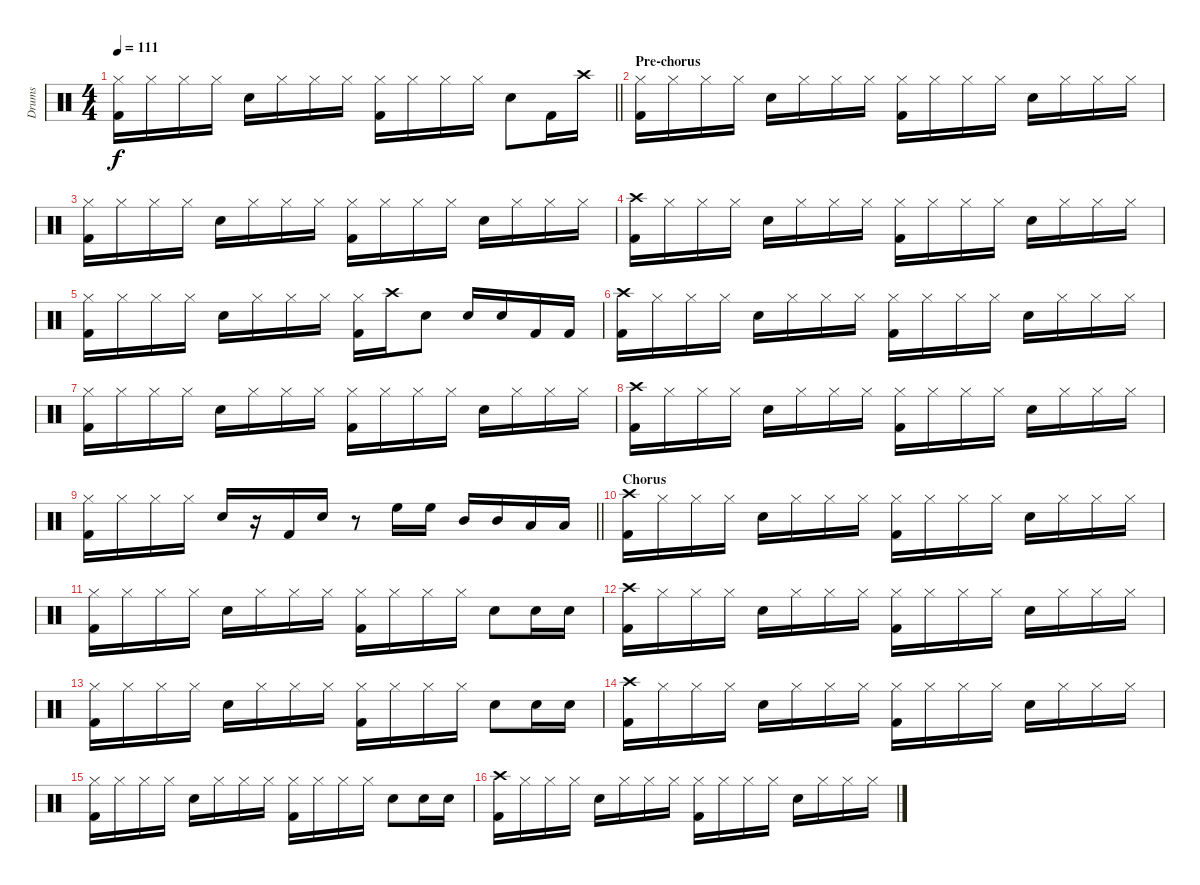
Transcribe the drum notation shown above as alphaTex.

\track ("Drums" "Drums") {instrument percussion}
\staff {score}
\articulation defaults
\ts (4 4)
\tempo 111
\clef neutral
\barLineRight lightlight
\ks c
("Hi-Hat (closed)" "Kick (hit) 2").16{dy f} "Hi-Hat (closed)".16 "Hi-Hat (closed)".16 "Hi-Hat (closed)".16 "Snare (hit) 2".16 "Hi-Hat (closed)".16 "Hi-Hat (closed)".16 "Hi-Hat (closed)".16 ("Hi-Hat (closed)" "Kick (hit) 2").16 "Hi-Hat (closed)".16 "Hi-Hat (closed)".16 "Hi-Hat (closed)".16 "Snare (hit) 2".8 "Kick (hit) 2".16 "Crash high (hit)".16 |
\section ("" "Pre-chorus")
("Hi-Hat (closed)" "Kick (hit) 2").16 "Hi-Hat (closed)".16 "Hi-Hat (closed)".16 "Hi-Hat (closed)".16 "Snare (hit) 2".16 "Hi-Hat (closed)".16 "Hi-Hat (closed)".16 "Hi-Hat (closed)".16 ("Hi-Hat (closed)" "Kick (hit) 2").16 "Hi-Hat (closed)".16 "Hi-Hat (closed)".16 "Hi-Hat (closed)".16 "Snare (hit) 2".16 "Hi-Hat (closed)".16 "Hi-Hat (closed)".16 "Hi-Hat (closed)".16 |
("Hi-Hat (closed)" "Kick (hit) 2").16 "Hi-Hat (closed)".16 "Hi-Hat (closed)".16 "Hi-Hat (closed)".16 "Snare (hit) 2".16 "Hi-Hat (closed)".16 "Hi-Hat (closed)".16 "Hi-Hat (closed)".16 ("Hi-Hat (closed)" "Kick (hit) 2").16 "Hi-Hat (closed)".16 "Hi-Hat (closed)".16 "Hi-Hat (closed)".16 "Snare (hit) 2".16 "Hi-Hat (closed)".16 "Hi-Hat (closed)".16 "Hi-Hat (closed)".16 |
("Crash high (hit)" "Kick (hit) 2").16 "Hi-Hat (closed)".16 "Hi-Hat (closed)".16 "Hi-Hat (closed)".16 "Snare (hit) 2".16 "Hi-Hat (closed)".16 "Hi-Hat (closed)".16 "Hi-Hat (closed)".16 ("Hi-Hat (closed)" "Kick (hit) 2").16 "Hi-Hat (closed)".16 "Hi-Hat (closed)".16 "Hi-Hat (closed)".16 "Snare (hit) 2".16 "Hi-Hat (closed)".16 "Hi-Hat (closed)".16 "Hi-Hat (closed)".16 |
("Hi-Hat (closed)" "Kick (hit) 2").16 "Hi-Hat (closed)".16 "Hi-Hat (closed)".16 "Hi-Hat (closed)".16 "Snare (hit) 2".16 "Hi-Hat (closed)".16 "Hi-Hat (closed)".16 "Hi-Hat (closed)".16 ("Hi-Hat (closed)" "Kick (hit) 2").16 "Crash high (hit)".16 "Snare (hit) 2".8 "Snare (hit) 2".16 "Snare (hit) 2".16 "Kick (hit) 2".16 "Kick (hit) 2".16 |
("Crash high (hit)" "Kick (hit) 2").16 "Hi-Hat (closed)".16 "Hi-Hat (closed)".16 "Hi-Hat (closed)".16 "Snare (hit) 2".16 "Hi-Hat (closed)".16 "Hi-Hat (closed)".16 "Hi-Hat (closed)".16 ("Hi-Hat (closed)" "Kick (hit) 2").16 "Hi-Hat (closed)".16 "Hi-Hat (closed)".16 "Hi-Hat (closed)".16 "Snare (hit) 2".16 "Hi-Hat (closed)".16 "Hi-Hat (closed)".16 "Hi-Hat (closed)".16 |
("Hi-Hat (closed)" "Kick (hit) 2").16 "Hi-Hat (closed)".16 "Hi-Hat (closed)".16 "Hi-Hat (closed)".16 "Snare (hit) 2".16 "Hi-Hat (closed)".16 "Hi-Hat (closed)".16 "Hi-Hat (closed)".16 ("Hi-Hat (closed)" "Kick (hit) 2").16 "Hi-Hat (closed)".16 "Hi-Hat (closed)".16 "Hi-Hat (closed)".16 "Snare (hit) 2".16 "Hi-Hat (closed)".16 "Hi-Hat (closed)".16 "Hi-Hat (closed)".16 |
("Crash high (hit)" "Kick (hit) 2").16 "Hi-Hat (closed)".16 "Hi-Hat (closed)".16 "Hi-Hat (closed)".16 "Snare (hit) 2".16 "Hi-Hat (closed)".16 "Hi-Hat (closed)".16 "Hi-Hat (closed)".16 ("Hi-Hat (closed)" "Kick (hit) 2").16 "Hi-Hat (closed)".16 "Hi-Hat (closed)".16 "Hi-Hat (closed)".16 "Snare (hit) 2".16 "Hi-Hat (closed)".16 "Hi-Hat (closed)".16 "Hi-Hat (closed)".16 |
\barLineRight lightlight
("Hi-Hat (closed)" "Kick (hit) 2").16 "Hi-Hat (closed)".16 "Hi-Hat (closed)".16 "Hi-Hat (closed)".16 "Snare (hit) 2".16 r.16 "Kick (hit) 2".16 "Snare (hit) 2".16 r.8 "High Floor Tom (hit)".16 "High Floor Tom (hit)".16 "Mid Tom (hit)".16 "Mid Tom (hit)".16 "Low Tom (hit)".16 "Low Tom (hit)".16 |
\section ("" "Chorus")
("Crash high (hit)" "Kick (hit) 2").16 "Hi-Hat (closed)".16 "Hi-Hat (closed)".16 "Hi-Hat (closed)".16 "Snare (hit) 2".16 "Hi-Hat (closed)".16 "Hi-Hat (closed)".16 "Hi-Hat (closed)".16 ("Hi-Hat (closed)" "Kick (hit) 2").16 "Hi-Hat (closed)".16 "Hi-Hat (closed)".16 "Hi-Hat (closed)".16 "Snare (hit) 2".16 "Hi-Hat (closed)".16 "Hi-Hat (closed)".16 "Hi-Hat (closed)".16 |
("Hi-Hat (closed)" "Kick (hit) 2").16 "Hi-Hat (closed)".16 "Hi-Hat (closed)".16 "Hi-Hat (closed)".16 "Snare (hit) 2".16 "Hi-Hat (closed)".16 "Hi-Hat (closed)".16 "Hi-Hat (closed)".16 ("Hi-Hat (closed)" "Kick (hit) 2").16 "Hi-Hat (closed)".16 "Hi-Hat (closed)".16 "Hi-Hat (closed)".16 "Snare (hit) 2".8 "Snare (hit) 2".16 "Snare (hit) 2".16 |
("Crash high (hit)" "Kick (hit) 2").16 "Hi-Hat (closed)".16 "Hi-Hat (closed)".16 "Hi-Hat (closed)".16 "Snare (hit) 2".16 "Hi-Hat (closed)".16 "Hi-Hat (closed)".16 "Hi-Hat (closed)".16 ("Hi-Hat (closed)" "Kick (hit) 2").16 "Hi-Hat (closed)".16 "Hi-Hat (closed)".16 "Hi-Hat (closed)".16 "Snare (hit) 2".16 "Hi-Hat (closed)".16 "Hi-Hat (closed)".16 "Hi-Hat (closed)".16 |
("Hi-Hat (closed)" "Kick (hit) 2").16 "Hi-Hat (closed)".16 "Hi-Hat (closed)".16 "Hi-Hat (closed)".16 "Snare (hit) 2".16 "Hi-Hat (closed)".16 "Hi-Hat (closed)".16 "Hi-Hat (closed)".16 ("Hi-Hat (closed)" "Kick (hit) 2").16 "Hi-Hat (closed)".16 "Hi-Hat (closed)".16 "Hi-Hat (closed)".16 "Snare (hit) 2".8 "Snare (hit) 2".16 "Snare (hit) 2".16 |
("Crash high (hit)" "Kick (hit) 2").16 "Hi-Hat (closed)".16 "Hi-Hat (closed)".16 "Hi-Hat (closed)".16 "Snare (hit) 2".16 "Hi-Hat (closed)".16 "Hi-Hat (closed)".16 "Hi-Hat (closed)".16 ("Hi-Hat (closed)" "Kick (hit) 2").16 "Hi-Hat (closed)".16 "Hi-Hat (closed)".16 "Hi-Hat (closed)".16 "Snare (hit) 2".16 "Hi-Hat (closed)".16 "Hi-Hat (closed)".16 "Hi-Hat (closed)".16 |
("Hi-Hat (closed)" "Kick (hit) 2").16 "Hi-Hat (closed)".16 "Hi-Hat (closed)".16 "Hi-Hat (closed)".16 "Snare (hit) 2".16 "Hi-Hat (closed)".16 "Hi-Hat (closed)".16 "Hi-Hat (closed)".16 ("Hi-Hat (closed)" "Kick (hit) 2").16 "Hi-Hat (closed)".16 "Hi-Hat (closed)".16 "Hi-Hat (closed)".16 "Snare (hit) 2".8 "Snare (hit) 2".16 "Snare (hit) 2".16 |
("Crash high (hit)" "Kick (hit) 2").16 "Hi-Hat (closed)".16 "Hi-Hat (closed)".16 "Hi-Hat (closed)".16 "Snare (hit) 2".16 "Hi-Hat (closed)".16 "Hi-Hat (closed)".16 "Hi-Hat (closed)".16 ("Hi-Hat (closed)" "Kick (hit) 2").16 "Hi-Hat (closed)".16 "Hi-Hat (closed)".16 "Hi-Hat (closed)".16 "Snare (hit) 2".16 "Hi-Hat (closed)".16 "Hi-Hat (closed)".16 "Hi-Hat (closed)".16
